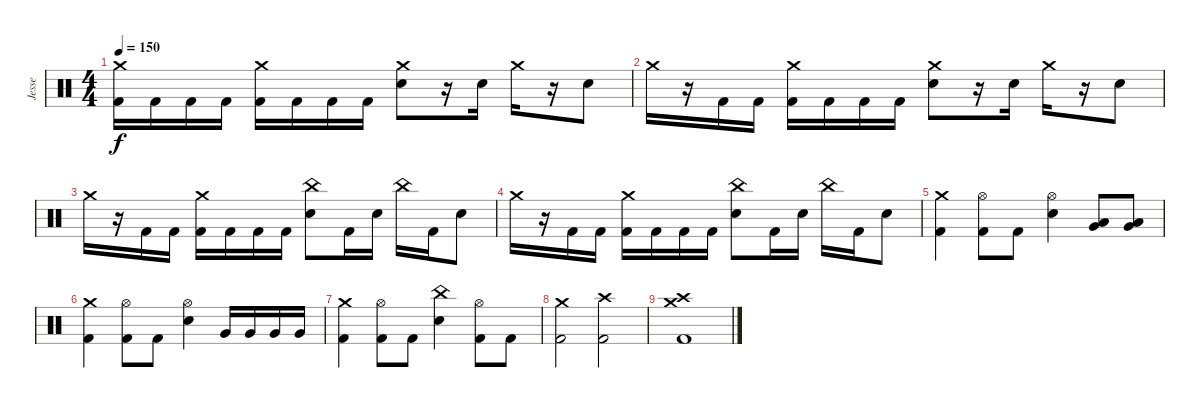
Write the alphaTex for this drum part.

\track ("Jesse" "Jesse") {instrument percussion}
\staff {score}
\articulation defaults
\ts (4 4)
\tempo 150
\clef neutral
\ks c
("Crash medium (hit)" "Kick (hit) 2").16{dy f} "Kick (hit) 2".16 "Kick (hit) 2".16 "Kick (hit) 2".16 ("Crash medium (hit)" "Kick (hit) 2").16 "Kick (hit) 2".16 "Kick (hit) 2".16 "Kick (hit) 2".16 ("Crash medium (hit)" "Electric Snare (hit)").8 r.16 "Electric Snare (hit)".16 "Crash medium (hit)".16 r.16 "Electric Snare (hit)".8 |
"Crash medium (hit)".16 r.16 "Kick (hit) 2".16 "Kick (hit) 2".16 ("Crash medium (hit)" "Kick (hit) 2").16 "Kick (hit) 2".16 "Kick (hit) 2".16 "Kick (hit) 2".16 ("Crash medium (hit)" "Electric Snare (hit)").8 r.16 "Electric Snare (hit)".16 "Crash medium (hit)".16 r.16 "Electric Snare (hit)".8 |
"Crash medium (hit)".16 r.16 "Kick (hit) 2".16 "Kick (hit) 2".16 ("Crash medium (hit)" "Kick (hit) 2").16 "Kick (hit) 2".16 "Kick (hit) 2".16 "Kick (hit) 2".16 ("China (hit)" "Electric Snare (hit)").8 "Kick (hit) 2".16 "Electric Snare (hit)".16 "China (hit)".16 "Kick (hit) 2".16 "Electric Snare (hit)".8 |
"Crash medium (hit)".16 r.16 "Kick (hit) 2".16 "Kick (hit) 2".16 ("Crash medium (hit)" "Kick (hit) 2").16 "Kick (hit) 2".16 "Kick (hit) 2".16 "Kick (hit) 2".16 ("China (hit)" "Electric Snare (hit)").8 "Kick (hit) 2".16 "Electric Snare (hit)".16 "China (hit)".16 "Kick (hit) 2".16 "Electric Snare (hit)".8 |
("Crash medium (hit)" "Kick (hit) 2").4 ("Hi-Hat (open)" "Kick (hit) 2").8 "Kick (hit) 2".8 ("Hi-Hat (open)" "Electric Snare (hit)").4 ("Low Tom (hit)" "Very Low Tom (hit)").8 ("Low Tom (hit)" "Very Low Tom (hit)").8 |
("Crash medium (hit)" "Kick (hit) 2").4 ("Hi-Hat (open)" "Kick (hit) 2").8 "Kick (hit) 2".8 ("Hi-Hat (open)" "Electric Snare (hit)").4 "Very Low Tom (hit)".16 "Very Low Tom (hit)".16 "Very Low Tom (hit)".16 "Very Low Tom (hit)".16 |
("Crash medium (hit)" "Kick (hit) 2").4 ("Hi-Hat (open)" "Kick (hit) 2").8 "Kick (hit) 2".8 ("China (hit)" "Electric Snare (hit)").4 ("Hi-Hat (open)" "Kick (hit) 2").8 "Kick (hit) 2".8 |
("Crash medium (hit)" "Kick (hit) 2").2 ("Crash high (hit)" "Kick (hit) 2").2 |
("Crash medium (hit)" "Crash high (hit)" "Kick (hit) 2").1
